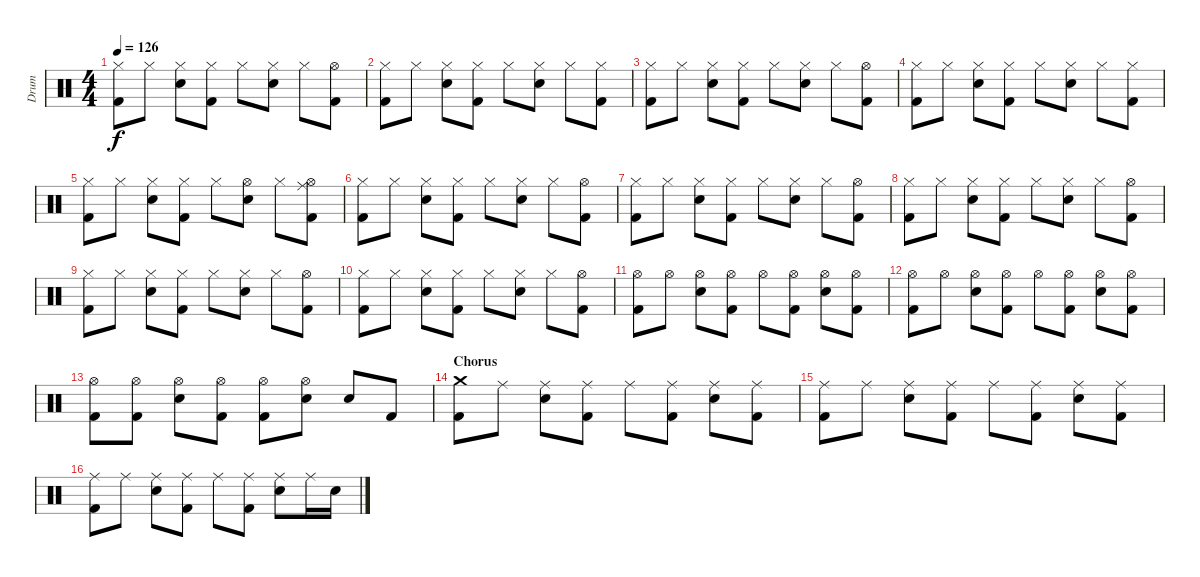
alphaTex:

\track ("Drum" "Drum") {instrument percussion}
\staff {score}
\articulation defaults
\ts (4 4)
\tempo 126
\clef neutral
\ks c
("Hi-Hat (closed)" "Kick (hit) 2").8{dy f} "Hi-Hat (closed)".8 ("Hi-Hat (closed)" "Snare (hit) 2").8 ("Hi-Hat (closed)" "Kick (hit) 2").8 "Hi-Hat (closed)".8 ("Hi-Hat (closed)" "Snare (hit) 2").8 "Hi-Hat (closed)".8 ("Hi-Hat (open)" "Kick (hit) 2").8 |
("Hi-Hat (closed)" "Kick (hit) 2").8 "Hi-Hat (closed)".8 ("Hi-Hat (closed)" "Snare (hit) 2").8 ("Hi-Hat (closed)" "Kick (hit) 2").8 "Hi-Hat (closed)".8 ("Hi-Hat (closed)" "Snare (hit) 2").8 "Hi-Hat (closed)".8 ("Hi-Hat (closed)" "Kick (hit) 2").8 |
("Hi-Hat (closed)" "Kick (hit) 2").8 "Hi-Hat (closed)".8 ("Hi-Hat (closed)" "Snare (hit) 2").8 ("Hi-Hat (closed)" "Kick (hit) 2").8 "Hi-Hat (closed)".8 ("Hi-Hat (closed)" "Snare (hit) 2").8 "Hi-Hat (closed)".8 ("Hi-Hat (open)" "Kick (hit) 2").8 |
("Hi-Hat (closed)" "Kick (hit) 2").8 "Hi-Hat (closed)".8 ("Hi-Hat (closed)" "Snare (hit) 2").8 ("Hi-Hat (closed)" "Kick (hit) 2").8 "Hi-Hat (closed)".8 ("Hi-Hat (closed)" "Snare (hit) 2").8 "Hi-Hat (closed)".8 ("Hi-Hat (closed)" "Kick (hit) 2").8 |
("Hi-Hat (closed)" "Kick (hit) 2").8 "Hi-Hat (closed)".8 ("Hi-Hat (closed)" "Snare (hit) 2").8 ("Hi-Hat (closed)" "Kick (hit) 2").8 "Hi-Hat (closed)".8 ("Hi-Hat (open)" "Snare (hit) 2").8 "Hi-Hat (closed)".8 ("Ride (middle)" "Hi-Hat (open)" "Kick (hit) 2").8 |
("Hi-Hat (closed)" "Kick (hit) 2").8 "Hi-Hat (closed)".8 ("Hi-Hat (closed)" "Snare (hit) 2").8 ("Hi-Hat (closed)" "Kick (hit) 2").8 "Hi-Hat (closed)".8 ("Hi-Hat (closed)" "Snare (hit) 2").8 "Hi-Hat (closed)".8 ("Hi-Hat (open)" "Kick (hit) 2").8 |
("Hi-Hat (closed)" "Kick (hit) 2").8 "Hi-Hat (closed)".8 ("Hi-Hat (closed)" "Snare (hit) 2").8 ("Hi-Hat (closed)" "Kick (hit) 2").8 "Hi-Hat (closed)".8 ("Hi-Hat (closed)" "Snare (hit) 2").8 "Hi-Hat (closed)".8 ("Hi-Hat (open)" "Kick (hit) 2").8 |
("Hi-Hat (closed)" "Kick (hit) 2").8 "Hi-Hat (closed)".8 ("Hi-Hat (closed)" "Snare (hit) 2").8 ("Hi-Hat (closed)" "Kick (hit) 2").8 "Hi-Hat (closed)".8 ("Hi-Hat (closed)" "Snare (hit) 2").8 "Hi-Hat (closed)".8 ("Hi-Hat (open)" "Kick (hit) 2").8 |
("Hi-Hat (closed)" "Kick (hit) 2").8 "Hi-Hat (closed)".8 ("Hi-Hat (closed)" "Snare (hit) 2").8 ("Hi-Hat (closed)" "Kick (hit) 2").8 "Hi-Hat (closed)".8 ("Hi-Hat (closed)" "Snare (hit) 2").8 "Hi-Hat (closed)".8 ("Hi-Hat (open)" "Kick (hit) 2").8 |
("Hi-Hat (closed)" "Kick (hit) 2").8 "Hi-Hat (closed)".8 ("Hi-Hat (closed)" "Snare (hit) 2").8 ("Hi-Hat (closed)" "Kick (hit) 2").8 "Hi-Hat (closed)".8 ("Hi-Hat (closed)" "Snare (hit) 2").8 "Hi-Hat (closed)".8 ("Hi-Hat (open)" "Kick (hit) 2").8 |
("Hi-Hat (open)" "Kick (hit) 2").8 "Hi-Hat (open)".8 ("Hi-Hat (open)" "Snare (hit) 2").8 ("Hi-Hat (open)" "Kick (hit) 2").8 "Hi-Hat (open)".8 ("Hi-Hat (open)" "Kick (hit) 2").8 ("Hi-Hat (open)" "Snare (hit) 2").8 ("Hi-Hat (open)" "Kick (hit) 2").8 |
("Hi-Hat (open)" "Kick (hit) 2").8 "Hi-Hat (open)".8 ("Hi-Hat (open)" "Snare (hit) 2").8 ("Hi-Hat (open)" "Kick (hit) 2").8 "Hi-Hat (open)".8 ("Hi-Hat (open)" "Kick (hit) 2").8 ("Hi-Hat (open)" "Snare (hit) 2").8 ("Hi-Hat (open)" "Kick (hit) 2").8 |
("Hi-Hat (open)" "Kick (hit) 2").8 ("Hi-Hat (open)" "Kick (hit) 2").8 ("Hi-Hat (open)" "Snare (hit) 2").8 ("Hi-Hat (open)" "Kick (hit) 2").8 ("Hi-Hat (open)" "Kick (hit) 2").8 ("Hi-Hat (open)" "Snare (hit) 2").8 "Snare (hit) 2".8 "Kick (hit) 2".8 |
\section ("" "Chorus")
("Crash medium (hit)" "Kick (hit) 2").8 "Ride (middle)".8 ("Ride (middle)" "Snare (hit) 2").8 ("Ride (middle)" "Kick (hit) 2").8 "Ride (middle)".8 ("Ride (middle)" "Kick (hit) 2").8 ("Ride (middle)" "Snare (hit) 2").8 ("Ride (middle)" "Kick (hit) 2").8 |
("Ride (middle)" "Kick (hit) 2").8 "Ride (middle)".8 ("Ride (middle)" "Snare (hit) 2").8 ("Ride (middle)" "Kick (hit) 2").8 "Ride (middle)".8 ("Ride (middle)" "Kick (hit) 2").8 ("Ride (middle)" "Snare (hit) 2").8 ("Ride (middle)" "Kick (hit) 2").8 |
("Ride (middle)" "Kick (hit) 2").8 "Ride (middle)".8 ("Ride (middle)" "Snare (hit) 2").8 ("Ride (middle)" "Kick (hit) 2").8 "Ride (middle)".8 ("Ride (middle)" "Kick (hit) 2").8 ("Ride (middle)" "Snare (hit) 2").8 "Ride (middle)".16 "Snare (hit) 2".16
